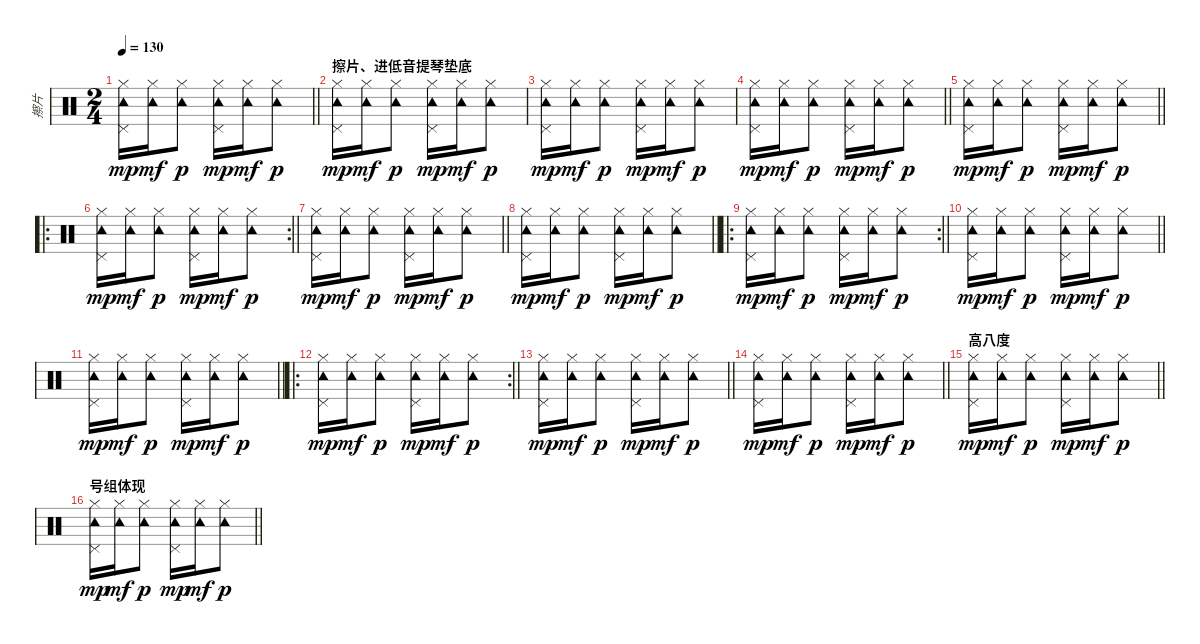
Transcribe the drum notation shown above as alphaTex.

\track ("擦片" "擦片") {instrument percussion}
\staff {score}
\articulation defaults
\ts (2 4)
\tempo 130
\clef neutral
\barLineRight lightlight
\ks c
("Hi-Hat (closed)" "Tambourine (hit)" "Pedal Hi-Hat (hit)").16{dy mp} ("Hi-Hat (closed)" "Tambourine (hit)").16{dy mf} ("Hi-Hat (closed)" "Tambourine (hit)").8{dy p} ("Hi-Hat (closed)" "Tambourine (hit)" "Pedal Hi-Hat (hit)").16{dy mp} ("Hi-Hat (closed)" "Tambourine (hit)").16{dy mf} ("Hi-Hat (closed)" "Tambourine (hit)").8{dy p} |
\section ("" "擦片、进低音提琴垫底")
("Hi-Hat (closed)" "Tambourine (hit)" "Pedal Hi-Hat (hit)").16{dy mp} ("Hi-Hat (closed)" "Tambourine (hit)").16{dy mf} ("Hi-Hat (closed)" "Tambourine (hit)").8{dy p} ("Hi-Hat (closed)" "Tambourine (hit)" "Pedal Hi-Hat (hit)").16{dy mp} ("Hi-Hat (closed)" "Tambourine (hit)").16{dy mf} ("Hi-Hat (closed)" "Tambourine (hit)").8{dy p} |
("Hi-Hat (closed)" "Tambourine (hit)" "Pedal Hi-Hat (hit)").16{dy mp} ("Hi-Hat (closed)" "Tambourine (hit)").16{dy mf} ("Hi-Hat (closed)" "Tambourine (hit)").8{dy p} ("Hi-Hat (closed)" "Tambourine (hit)" "Pedal Hi-Hat (hit)").16{dy mp} ("Hi-Hat (closed)" "Tambourine (hit)").16{dy mf} ("Hi-Hat (closed)" "Tambourine (hit)").8{dy p} |
\barLineRight lightlight
("Hi-Hat (closed)" "Tambourine (hit)" "Pedal Hi-Hat (hit)").16{dy mp} ("Hi-Hat (closed)" "Tambourine (hit)").16{dy mf} ("Hi-Hat (closed)" "Tambourine (hit)").8{dy p} ("Hi-Hat (closed)" "Tambourine (hit)" "Pedal Hi-Hat (hit)").16{dy mp} ("Hi-Hat (closed)" "Tambourine (hit)").16{dy mf} ("Hi-Hat (closed)" "Tambourine (hit)").8{dy p} |
\barLineRight lightlight
("Hi-Hat (closed)" "Tambourine (hit)" "Pedal Hi-Hat (hit)").16{dy mp} ("Hi-Hat (closed)" "Tambourine (hit)").16{dy mf} ("Hi-Hat (closed)" "Tambourine (hit)").8{dy p} ("Hi-Hat (closed)" "Tambourine (hit)" "Pedal Hi-Hat (hit)").16{dy mp} ("Hi-Hat (closed)" "Tambourine (hit)").16{dy mf} ("Hi-Hat (closed)" "Tambourine (hit)").8{dy p} |
\ro
\rc 2
\barLineRight lightlight
("Hi-Hat (closed)" "Tambourine (hit)" "Pedal Hi-Hat (hit)").16{dy mp} ("Hi-Hat (closed)" "Tambourine (hit)").16{dy mf} ("Hi-Hat (closed)" "Tambourine (hit)").8{dy p} ("Hi-Hat (closed)" "Tambourine (hit)" "Pedal Hi-Hat (hit)").16{dy mp} ("Hi-Hat (closed)" "Tambourine (hit)").16{dy mf} ("Hi-Hat (closed)" "Tambourine (hit)").8{dy p} |
\barLineRight lightlight
("Hi-Hat (closed)" "Tambourine (hit)" "Pedal Hi-Hat (hit)").16{dy mp} ("Hi-Hat (closed)" "Tambourine (hit)").16{dy mf} ("Hi-Hat (closed)" "Tambourine (hit)").8{dy p} ("Hi-Hat (closed)" "Tambourine (hit)" "Pedal Hi-Hat (hit)").16{dy mp} ("Hi-Hat (closed)" "Tambourine (hit)").16{dy mf} ("Hi-Hat (closed)" "Tambourine (hit)").8{dy p} |
\barLineRight lightlight
("Hi-Hat (closed)" "Tambourine (hit)" "Pedal Hi-Hat (hit)").16{dy mp} ("Hi-Hat (closed)" "Tambourine (hit)").16{dy mf} ("Hi-Hat (closed)" "Tambourine (hit)").8{dy p} ("Hi-Hat (closed)" "Tambourine (hit)" "Pedal Hi-Hat (hit)").16{dy mp} ("Hi-Hat (closed)" "Tambourine (hit)").16{dy mf} ("Hi-Hat (closed)" "Tambourine (hit)").8{dy p} |
\ro
\rc 2
\barLineRight lightlight
("Hi-Hat (closed)" "Tambourine (hit)" "Pedal Hi-Hat (hit)").16{dy mp} ("Hi-Hat (closed)" "Tambourine (hit)").16{dy mf} ("Hi-Hat (closed)" "Tambourine (hit)").8{dy p} ("Hi-Hat (closed)" "Tambourine (hit)" "Pedal Hi-Hat (hit)").16{dy mp} ("Hi-Hat (closed)" "Tambourine (hit)").16{dy mf} ("Hi-Hat (closed)" "Tambourine (hit)").8{dy p} |
\barLineRight lightlight
("Hi-Hat (closed)" "Tambourine (hit)" "Pedal Hi-Hat (hit)").16{dy mp} ("Hi-Hat (closed)" "Tambourine (hit)").16{dy mf} ("Hi-Hat (closed)" "Tambourine (hit)").8{dy p} ("Hi-Hat (closed)" "Tambourine (hit)" "Pedal Hi-Hat (hit)").16{dy mp} ("Hi-Hat (closed)" "Tambourine (hit)").16{dy mf} ("Hi-Hat (closed)" "Tambourine (hit)").8{dy p} |
\barLineRight lightlight
("Hi-Hat (closed)" "Tambourine (hit)" "Pedal Hi-Hat (hit)").16{dy mp} ("Hi-Hat (closed)" "Tambourine (hit)").16{dy mf} ("Hi-Hat (closed)" "Tambourine (hit)").8{dy p} ("Hi-Hat (closed)" "Tambourine (hit)" "Pedal Hi-Hat (hit)").16{dy mp} ("Hi-Hat (closed)" "Tambourine (hit)").16{dy mf} ("Hi-Hat (closed)" "Tambourine (hit)").8{dy p} |
\ro
\rc 2
\barLineRight lightlight
("Hi-Hat (closed)" "Tambourine (hit)" "Pedal Hi-Hat (hit)").16{dy mp} ("Hi-Hat (closed)" "Tambourine (hit)").16{dy mf} ("Hi-Hat (closed)" "Tambourine (hit)").8{dy p} ("Hi-Hat (closed)" "Tambourine (hit)" "Pedal Hi-Hat (hit)").16{dy mp} ("Hi-Hat (closed)" "Tambourine (hit)").16{dy mf} ("Hi-Hat (closed)" "Tambourine (hit)").8{dy p} |
\barLineRight lightlight
("Hi-Hat (closed)" "Tambourine (hit)" "Pedal Hi-Hat (hit)").16{dy mp} ("Hi-Hat (closed)" "Tambourine (hit)").16{dy mf} ("Hi-Hat (closed)" "Tambourine (hit)").8{dy p} ("Hi-Hat (closed)" "Tambourine (hit)" "Pedal Hi-Hat (hit)").16{dy mp} ("Hi-Hat (closed)" "Tambourine (hit)").16{dy mf} ("Hi-Hat (closed)" "Tambourine (hit)").8{dy p} |
\barLineRight lightlight
("Hi-Hat (closed)" "Tambourine (hit)" "Pedal Hi-Hat (hit)").16{dy mp} ("Hi-Hat (closed)" "Tambourine (hit)").16{dy mf} ("Hi-Hat (closed)" "Tambourine (hit)").8{dy p} ("Hi-Hat (closed)" "Tambourine (hit)" "Pedal Hi-Hat (hit)").16{dy mp} ("Hi-Hat (closed)" "Tambourine (hit)").16{dy mf} ("Hi-Hat (closed)" "Tambourine (hit)").8{dy p} |
\section ("" "高八度")
\barLineRight lightlight
("Hi-Hat (closed)" "Tambourine (hit)" "Pedal Hi-Hat (hit)").16{dy mp} ("Hi-Hat (closed)" "Tambourine (hit)").16{dy mf} ("Hi-Hat (closed)" "Tambourine (hit)").8{dy p} ("Hi-Hat (closed)" "Tambourine (hit)" "Pedal Hi-Hat (hit)").16{dy mp} ("Hi-Hat (closed)" "Tambourine (hit)").16{dy mf} ("Hi-Hat (closed)" "Tambourine (hit)").8{dy p} |
\section ("" "号组体现")
\barLineRight lightlight
("Hi-Hat (closed)" "Tambourine (hit)" "Pedal Hi-Hat (hit)").16{dy mp} ("Hi-Hat (closed)" "Tambourine (hit)").16{dy mf} ("Hi-Hat (closed)" "Tambourine (hit)").8{dy p} ("Hi-Hat (closed)" "Tambourine (hit)" "Pedal Hi-Hat (hit)").16{dy mp} ("Hi-Hat (closed)" "Tambourine (hit)").16{dy mf} ("Hi-Hat (closed)" "Tambourine (hit)").8{dy p}
